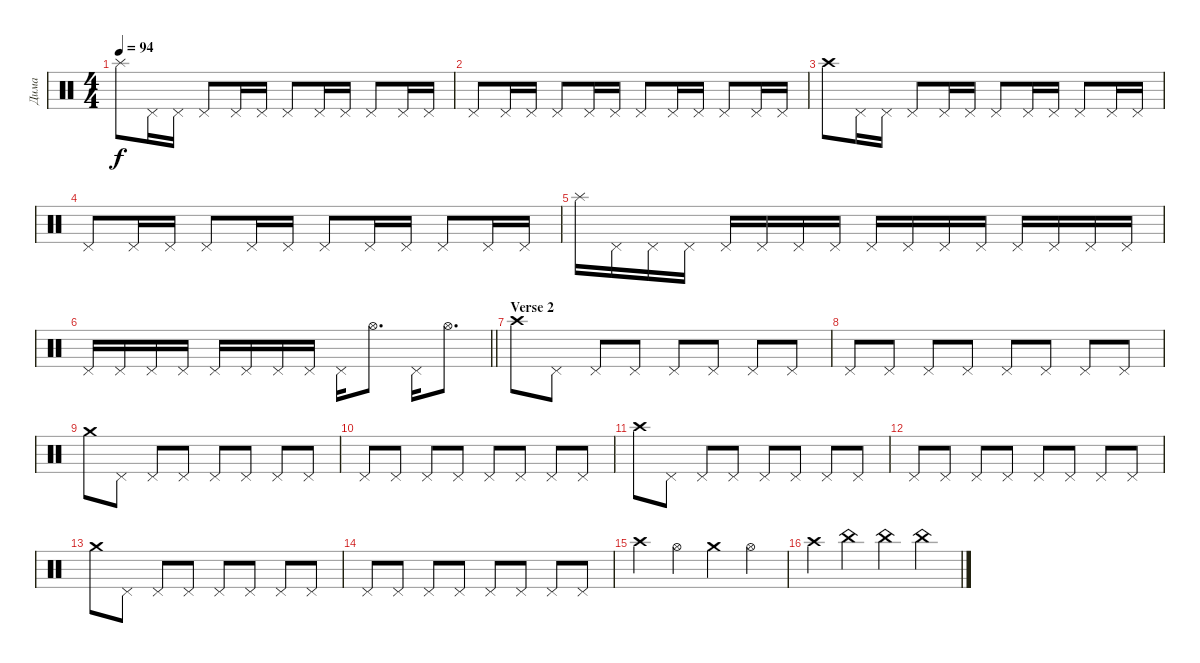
\track ("Дима" "Дима") {instrument percussion}
\staff {score}
\articulation defaults
\ts (4 4)
\tempo 94
\clef neutral
\ks c "Splash (hit)".8{dy f} "Pedal Hi-Hat (hit)".16 "Pedal Hi-Hat (hit)".16 "Pedal Hi-Hat (hit)".8 "Pedal Hi-Hat (hit)".16 "Pedal Hi-Hat (hit)".16 "Pedal Hi-Hat (hit)".8 "Pedal Hi-Hat (hit)".16 "Pedal Hi-Hat (hit)".16 "Pedal Hi-Hat (hit)".8 "Pedal Hi-Hat (hit)".16 "Pedal Hi-Hat (hit)".16
|
"Pedal Hi-Hat (hit)".8 "Pedal Hi-Hat (hit)".16 "Pedal Hi-Hat (hit)".16 "Pedal Hi-Hat (hit)".8 "Pedal Hi-Hat (hit)".16 "Pedal Hi-Hat (hit)".16 "Pedal Hi-Hat (hit)".8 "Pedal Hi-Hat (hit)".16 "Pedal Hi-Hat (hit)".16 "Pedal Hi-Hat (hit)".8 "Pedal Hi-Hat (hit)".16 "Pedal Hi-Hat (hit)".16 |
"Crash high (hit)".8 "Pedal Hi-Hat (hit)".16 "Pedal Hi-Hat (hit)".16 "Pedal Hi-Hat (hit)".8 "Pedal Hi-Hat (hit)".16 "Pedal Hi-Hat (hit)".16 "Pedal Hi-Hat (hit)".8 "Pedal Hi-Hat (hit)".16 "Pedal Hi-Hat (hit)".16 "Pedal Hi-Hat (hit)".8 "Pedal Hi-Hat (hit)".16 "Pedal Hi-Hat (hit)".16 |
"Pedal Hi-Hat (hit)".8 "Pedal Hi-Hat (hit)".16 "Pedal Hi-Hat (hit)".16 "Pedal Hi-Hat (hit)".8 "Pedal Hi-Hat (hit)".16 "Pedal Hi-Hat (hit)".16 "Pedal Hi-Hat (hit)".8 "Pedal Hi-Hat (hit)".16 "Pedal Hi-Hat (hit)".16 "Pedal Hi-Hat (hit)".8 "Pedal Hi-Hat (hit)".16 "Pedal Hi-Hat (hit)".16 |
"Splash (hit)".16 "Pedal Hi-Hat (hit)".16 "Pedal Hi-Hat (hit)".16 "Pedal Hi-Hat (hit)".16 "Pedal Hi-Hat (hit)".16 "Pedal Hi-Hat (hit)".16 "Pedal Hi-Hat (hit)".16 "Pedal Hi-Hat (hit)".16 "Pedal Hi-Hat (hit)".16 "Pedal Hi-Hat (hit)".16 "Pedal Hi-Hat (hit)".16 "Pedal Hi-Hat (hit)".16 "Pedal Hi-Hat (hit)".16 "Pedal Hi-Hat (hit)".16 "Pedal Hi-Hat (hit)".16 "Pedal Hi-Hat (hit)".16 |
\barLineRight lightlight "Pedal Hi-Hat (hit)".16 "Pedal Hi-Hat (hit)".16 "Pedal Hi-Hat (hit)".16 "Pedal Hi-Hat (hit)".16 "Pedal Hi-Hat (hit)".16 "Pedal Hi-Hat (hit)".16 "Pedal Hi-Hat (hit)".16 "Pedal Hi-Hat (hit)".16 "Pedal Hi-Hat (hit)".16 "Hi-Hat (open)".8{d} "Pedal Hi-Hat (hit)".16 "Hi-Hat (open)".8{d}
|
\section ("" "Verse 2")
"Crash high (hit)".8 "Pedal Hi-Hat (hit)".8 "Pedal Hi-Hat (hit)".8 "Pedal Hi-Hat (hit)".8 "Pedal Hi-Hat (hit)".8 "Pedal Hi-Hat (hit)".8 "Pedal Hi-Hat (hit)".8 "Pedal Hi-Hat (hit)".8 |
"Pedal Hi-Hat (hit)".8 "Pedal Hi-Hat (hit)".8 "Pedal Hi-Hat (hit)".8 "Pedal Hi-Hat (hit)".8 "Pedal Hi-Hat (hit)".8 "Pedal Hi-Hat (hit)".8 "Pedal Hi-Hat (hit)".8 "Pedal Hi-Hat (hit)".8 |
"Crash medium (hit)".8 "Pedal Hi-Hat (hit)".8 "Pedal Hi-Hat (hit)".8 "Pedal Hi-Hat (hit)".8 "Pedal Hi-Hat (hit)".8 "Pedal Hi-Hat (hit)".8 "Pedal Hi-Hat (hit)".8 "Pedal Hi-Hat (hit)".8 |
"Pedal Hi-Hat (hit)".8 "Pedal Hi-Hat (hit)".8 "Pedal Hi-Hat (hit)".8 "Pedal Hi-Hat (hit)".8 "Pedal Hi-Hat (hit)".8 "Pedal Hi-Hat (hit)".8 "Pedal Hi-Hat (hit)".8 "Pedal Hi-Hat (hit)".8 |
"Crash high (hit)".8 "Pedal Hi-Hat (hit)".8 "Pedal Hi-Hat (hit)".8 "Pedal Hi-Hat (hit)".8 "Pedal Hi-Hat (hit)".8 "Pedal Hi-Hat (hit)".8 "Pedal Hi-Hat (hit)".8 "Pedal Hi-Hat (hit)".8 |
"Pedal Hi-Hat (hit)".8 "Pedal Hi-Hat (hit)".8 "Pedal Hi-Hat (hit)".8 "Pedal Hi-Hat (hit)".8 "Pedal Hi-Hat (hit)".8 "Pedal Hi-Hat (hit)".8 "Pedal Hi-Hat (hit)".8 "Pedal Hi-Hat (hit)".8 |
"Crash medium (hit)".8 "Pedal Hi-Hat (hit)".8 "Pedal Hi-Hat (hit)".8 "Pedal Hi-Hat (hit)".8 "Pedal Hi-Hat (hit)".8 "Pedal Hi-Hat (hit)".8 "Pedal Hi-Hat (hit)".8 "Pedal Hi-Hat (hit)".8 |
"Pedal Hi-Hat (hit)".8 "Pedal Hi-Hat (hit)".8 "Pedal Hi-Hat (hit)".8 "Pedal Hi-Hat (hit)".8 "Pedal Hi-Hat (hit)".8 "Pedal Hi-Hat (hit)".8 "Pedal Hi-Hat (hit)".8 "Pedal Hi-Hat (hit)".8 |
"Crash high (hit)".4 "Hi-Hat (open)".4 "Crash medium (hit)".4 "Hi-Hat (open)".4 |
"Crash high (hit)".4 "China (hit)".4 "China (hit)".4 "China (hit)".4
